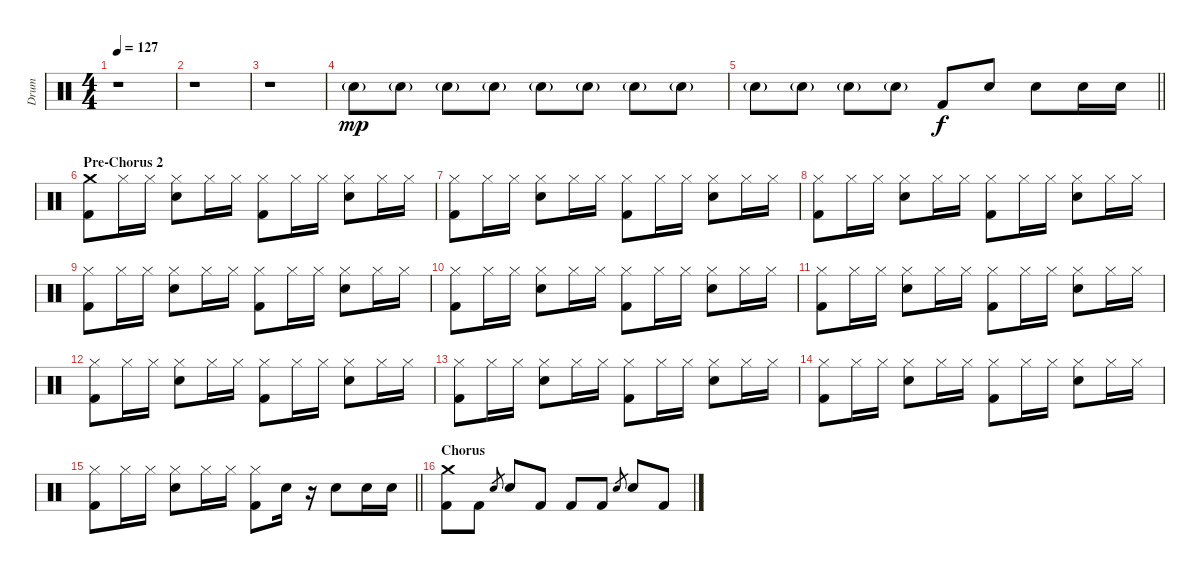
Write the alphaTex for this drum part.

\track ("Drum" "Drum") {instrument percussion}
\staff {score}
\articulation defaults
\ts (4 4)
\tempo 127
\clef neutral
\ks c
r.1{dy f} |
r.1 |
r.1 |
"Electric Snare (hit)"{g}.8{dy mp} "Electric Snare (hit)"{g}.8 "Electric Snare (hit)"{g}.8 "Electric Snare (hit)"{g}.8 "Electric Snare (hit)"{g}.8 "Electric Snare (hit)"{g}.8 "Electric Snare (hit)"{g}.8 "Electric Snare (hit)"{g}.8 |
\barLineRight lightlight "Electric Snare (hit)"{g}.8 "Electric Snare (hit)"{g}.8 "Electric Snare (hit)"{g}.8 "Electric Snare (hit)"{g}.8 "Kick (hit) 2".8{dy f} "Electric Snare (hit)".8 "Electric Snare (hit)".8 "Electric Snare (hit)".16 "Electric Snare (hit)".16
|
\section ("" "Pre-Chorus 2")
("Crash medium (hit)" "Kick (hit) 2").8 "Hi-Hat (closed)".16 "Hi-Hat (closed)".16 ("Hi-Hat (closed)" "Electric Snare (hit)").8 "Hi-Hat (closed)".16 "Hi-Hat (closed)".16 ("Hi-Hat (closed)" "Kick (hit) 2").8 "Hi-Hat (closed)".16 "Hi-Hat (closed)".16 ("Hi-Hat (closed)" "Electric Snare (hit)").8 "Hi-Hat (closed)".16 "Hi-Hat (closed)".16 |
("Hi-Hat (closed)" "Kick (hit) 2").8 "Hi-Hat (closed)".16 "Hi-Hat (closed)".16 ("Hi-Hat (closed)" "Electric Snare (hit)").8 "Hi-Hat (closed)".16 "Hi-Hat (closed)".16 ("Hi-Hat (closed)" "Kick (hit) 2").8 "Hi-Hat (closed)".16 "Hi-Hat (closed)".16 ("Hi-Hat (closed)" "Electric Snare (hit)").8 "Hi-Hat (closed)".16 "Hi-Hat (closed)".16 |
("Hi-Hat (closed)" "Kick (hit) 2").8 "Hi-Hat (closed)".16 "Hi-Hat (closed)".16 ("Hi-Hat (closed)" "Electric Snare (hit)").8 "Hi-Hat (closed)".16 "Hi-Hat (closed)".16 ("Hi-Hat (closed)" "Kick (hit) 2").8 "Hi-Hat (closed)".16 "Hi-Hat (closed)".16 ("Hi-Hat (closed)" "Electric Snare (hit)").8 "Hi-Hat (closed)".16 "Hi-Hat (closed)".16 |
("Hi-Hat (closed)" "Kick (hit) 2").8 "Hi-Hat (closed)".16 "Hi-Hat (closed)".16 ("Hi-Hat (closed)" "Electric Snare (hit)").8 "Hi-Hat (closed)".16 "Hi-Hat (closed)".16 ("Hi-Hat (closed)" "Kick (hit) 2").8 "Hi-Hat (closed)".16 "Hi-Hat (closed)".16 ("Hi-Hat (closed)" "Electric Snare (hit)").8 "Hi-Hat (closed)".16 "Hi-Hat (closed)".16 |
("Hi-Hat (closed)" "Kick (hit) 2").8 "Hi-Hat (closed)".16 "Hi-Hat (closed)".16 ("Hi-Hat (closed)" "Electric Snare (hit)").8 "Hi-Hat (closed)".16 "Hi-Hat (closed)".16 ("Hi-Hat (closed)" "Kick (hit) 2").8 "Hi-Hat (closed)".16 "Hi-Hat (closed)".16 ("Hi-Hat (closed)" "Electric Snare (hit)").8 "Hi-Hat (closed)".16 "Hi-Hat (closed)".16 |
("Hi-Hat (closed)" "Kick (hit) 2").8 "Hi-Hat (closed)".16 "Hi-Hat (closed)".16 ("Hi-Hat (closed)" "Electric Snare (hit)").8 "Hi-Hat (closed)".16 "Hi-Hat (closed)".16 ("Hi-Hat (closed)" "Kick (hit) 2").8 "Hi-Hat (closed)".16 "Hi-Hat (closed)".16 ("Hi-Hat (closed)" "Electric Snare (hit)").8 "Hi-Hat (closed)".16 "Hi-Hat (closed)".16 |
("Hi-Hat (closed)" "Kick (hit) 2").8 "Hi-Hat (closed)".16 "Hi-Hat (closed)".16 ("Hi-Hat (closed)" "Electric Snare (hit)").8 "Hi-Hat (closed)".16 "Hi-Hat (closed)".16 ("Hi-Hat (closed)" "Kick (hit) 2").8 "Hi-Hat (closed)".16 "Hi-Hat (closed)".16 ("Hi-Hat (closed)" "Electric Snare (hit)").8 "Hi-Hat (closed)".16 "Hi-Hat (closed)".16 |
("Hi-Hat (closed)" "Kick (hit) 2").8 "Hi-Hat (closed)".16 "Hi-Hat (closed)".16 ("Hi-Hat (closed)" "Electric Snare (hit)").8 "Hi-Hat (closed)".16 "Hi-Hat (closed)".16 ("Hi-Hat (closed)" "Kick (hit) 2").8 "Hi-Hat (closed)".16 "Hi-Hat (closed)".16 ("Hi-Hat (closed)" "Electric Snare (hit)").8 "Hi-Hat (closed)".16 "Hi-Hat (closed)".16 |
("Hi-Hat (closed)" "Kick (hit) 2").8 "Hi-Hat (closed)".16 "Hi-Hat (closed)".16 ("Hi-Hat (closed)" "Electric Snare (hit)").8 "Hi-Hat (closed)".16 "Hi-Hat (closed)".16 ("Hi-Hat (closed)" "Kick (hit) 2").8 "Hi-Hat (closed)".16 "Hi-Hat (closed)".16 ("Hi-Hat (closed)" "Electric Snare (hit)").8 "Hi-Hat (closed)".16 "Hi-Hat (closed)".16 |
\barLineRight lightlight
("Hi-Hat (closed)" "Kick (hit) 2").8 "Hi-Hat (closed)".16 "Hi-Hat (closed)".16 ("Hi-Hat (closed)" "Electric Snare (hit)").8 "Hi-Hat (closed)".16 "Hi-Hat (closed)".16 ("Hi-Hat (closed)" "Kick (hit) 2").8 "Electric Snare (hit)".16 r.16 "Electric Snare (hit)".8 "Electric Snare (hit)".16 "Electric Snare (hit)".16 |
\section ("" "Chorus")
("Crash medium (hit)" "Kick (hit) 2").8 "Kick (hit) 2".8 "Electric Snare (hit)".8{gr} "Electric Snare (hit)".8 "Kick (hit) 2".8 "Kick (hit) 2".8 "Kick (hit) 2".8 "Electric Snare (hit)".8{gr} "Electric Snare (hit)".8 "Kick (hit) 2".8
